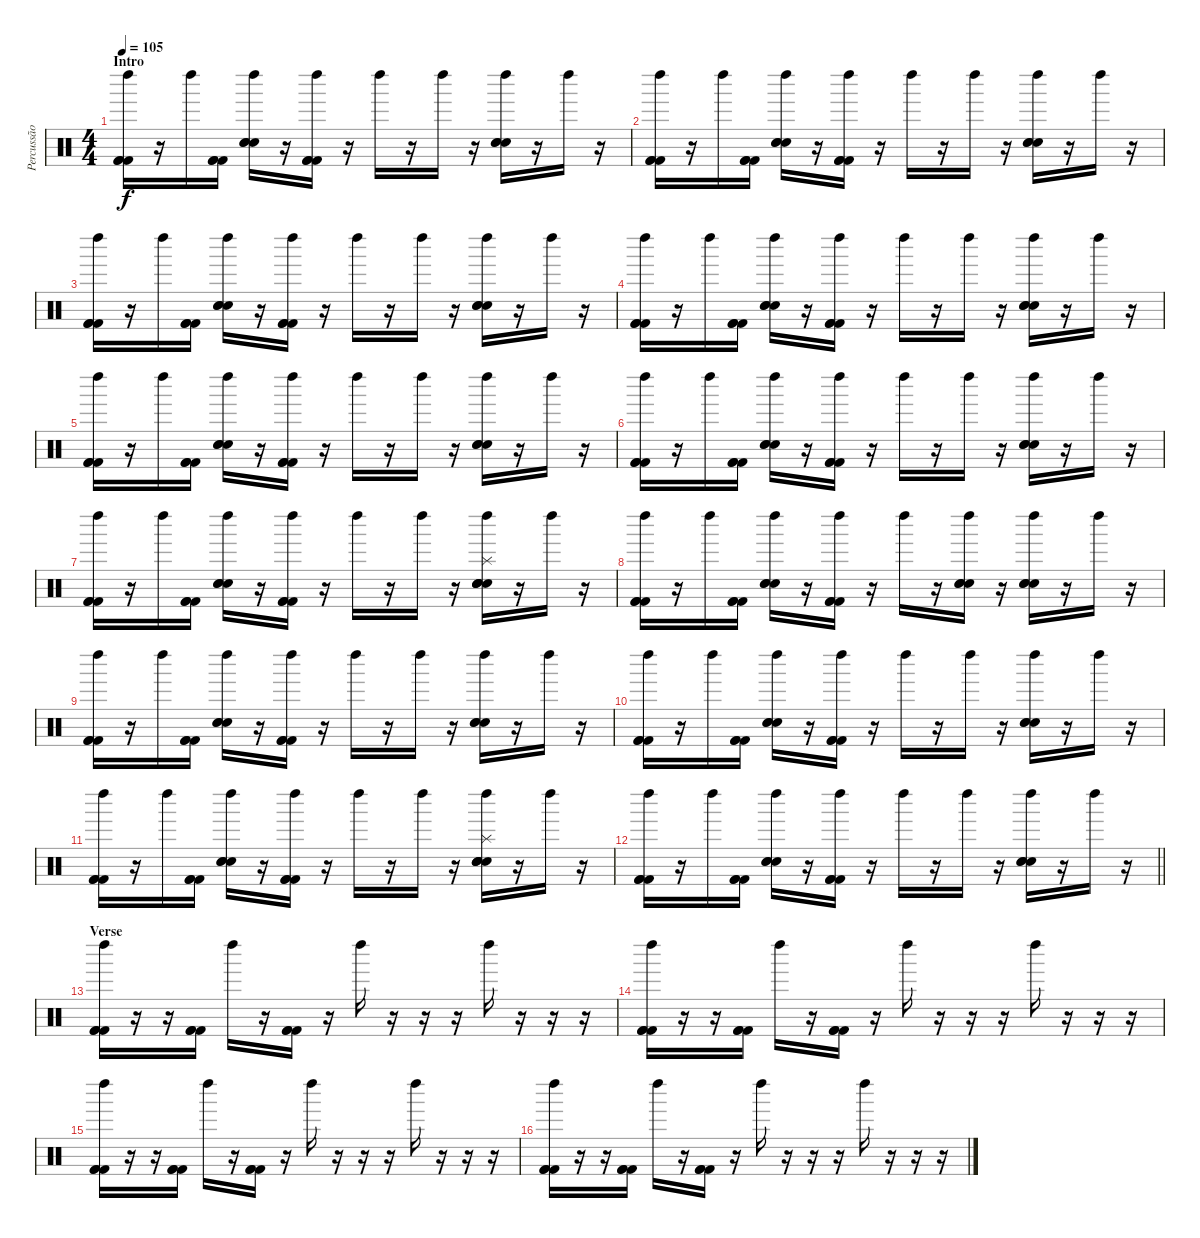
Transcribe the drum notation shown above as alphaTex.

\track ("Percussão" "Percussão") {instrument percussion}
\staff {score}
\articulation defaults
\ts (4 4)
\section ("" "Intro")
\tempo 105
\clef neutral
\ks c
("Left Maraca (hit)" "Kick (hit) 2" "Kick (hit) 2" "Kick (hit) 2").16{dy f} r.16 "Left Maraca (hit)".16 ("Kick (hit) 2" "Kick (hit) 2" "Kick (hit) 2").16 ("Left Maraca (hit)" "Hand Clap (hit)" "Hand Clap (hit)" "Hand Clap (hit)").16 r.16 ("Left Maraca (hit)" "Kick (hit) 2" "Kick (hit) 2" "Kick (hit) 2").16 r.16 "Left Maraca (hit)".16 r.16 "Left Maraca (hit)".16 r.16 ("Left Maraca (hit)" "Hand Clap (hit)" "Hand Clap (hit)" "Hand Clap (hit)").16 r.16 "Left Maraca (hit)".16 r.16 |
("Left Maraca (hit)" "Kick (hit) 2" "Kick (hit) 2" "Kick (hit) 2").16 r.16 "Left Maraca (hit)".16 ("Kick (hit) 2" "Kick (hit) 2" "Kick (hit) 2").16 ("Left Maraca (hit)" "Hand Clap (hit)" "Hand Clap (hit)" "Hand Clap (hit)").16 r.16 ("Left Maraca (hit)" "Kick (hit) 2" "Kick (hit) 2" "Kick (hit) 2").16 r.16 "Left Maraca (hit)".16 r.16 "Left Maraca (hit)".16 r.16 ("Left Maraca (hit)" "Hand Clap (hit)" "Hand Clap (hit)" "Hand Clap (hit)").16 r.16 "Left Maraca (hit)".16 r.16 |
("Left Maraca (hit)" "Kick (hit) 2" "Kick (hit) 2" "Kick (hit) 2").16 r.16 "Left Maraca (hit)".16 ("Kick (hit) 2" "Kick (hit) 2" "Kick (hit) 2").16 ("Left Maraca (hit)" "Hand Clap (hit)" "Hand Clap (hit)" "Hand Clap (hit)").16 r.16 ("Left Maraca (hit)" "Kick (hit) 2" "Kick (hit) 2" "Kick (hit) 2").16 r.16 "Left Maraca (hit)".16 r.16 "Left Maraca (hit)".16 r.16 ("Left Maraca (hit)" "Hand Clap (hit)" "Hand Clap (hit)" "Hand Clap (hit)").16 r.16 "Left Maraca (hit)".16 r.16 |
("Left Maraca (hit)" "Kick (hit) 2" "Kick (hit) 2" "Kick (hit) 2").16 r.16 "Left Maraca (hit)".16 ("Kick (hit) 2" "Kick (hit) 2" "Kick (hit) 2").16 ("Left Maraca (hit)" "Hand Clap (hit)" "Hand Clap (hit)" "Hand Clap (hit)").16 r.16 ("Left Maraca (hit)" "Kick (hit) 2" "Kick (hit) 2" "Kick (hit) 2").16 r.16 "Left Maraca (hit)".16 r.16 "Left Maraca (hit)".16 r.16 ("Left Maraca (hit)" "Hand Clap (hit)" "Hand Clap (hit)" "Hand Clap (hit)").16 r.16 "Left Maraca (hit)".16 r.16 |
("Left Maraca (hit)" "Kick (hit) 2" "Kick (hit) 2" "Kick (hit) 2").16 r.16 "Left Maraca (hit)".16 ("Kick (hit) 2" "Kick (hit) 2" "Kick (hit) 2").16 ("Left Maraca (hit)" "Hand Clap (hit)" "Hand Clap (hit)" "Hand Clap (hit)").16 r.16 ("Left Maraca (hit)" "Kick (hit) 2" "Kick (hit) 2" "Kick (hit) 2").16 r.16 "Left Maraca (hit)".16 r.16 "Left Maraca (hit)".16 r.16 ("Left Maraca (hit)" "Hand Clap (hit)" "Hand Clap (hit)" "Hand Clap (hit)").16 r.16 "Left Maraca (hit)".16 r.16 |
("Left Maraca (hit)" "Kick (hit) 2" "Kick (hit) 2" "Kick (hit) 2").16 r.16 "Left Maraca (hit)".16 ("Kick (hit) 2" "Kick (hit) 2" "Kick (hit) 2").16 ("Left Maraca (hit)" "Hand Clap (hit)" "Hand Clap (hit)" "Hand Clap (hit)").16 r.16 ("Left Maraca (hit)" "Kick (hit) 2" "Kick (hit) 2" "Kick (hit) 2").16 r.16 "Left Maraca (hit)".16 r.16 "Left Maraca (hit)".16 r.16 ("Left Maraca (hit)" "Hand Clap (hit)" "Hand Clap (hit)" "Hand Clap (hit)").16 r.16 "Left Maraca (hit)".16 r.16 |
("Left Maraca (hit)" "Kick (hit) 2" "Kick (hit) 2" "Kick (hit) 2").16 r.16 "Left Maraca (hit)".16 ("Kick (hit) 2" "Kick (hit) 2" "Kick (hit) 2").16 ("Left Maraca (hit)" "Hand Clap (hit)" "Hand Clap (hit)" "Hand Clap (hit)").16 r.16 ("Left Maraca (hit)" "Kick (hit) 2" "Kick (hit) 2" "Kick (hit) 2").16 r.16 "Left Maraca (hit)".16 r.16 "Left Maraca (hit)".16 r.16 ("Left Maraca (hit)" "Splash (hit)" "Hand Clap (hit)" "Hand Clap (hit)" "Hand Clap (hit)" "Snare (hit) 2").16 r.16 "Left Maraca (hit)".16 r.16 |
("Left Maraca (hit)" "Kick (hit) 2" "Kick (hit) 2" "Kick (hit) 2").16 r.16 "Left Maraca (hit)".16 ("Kick (hit) 2" "Kick (hit) 2" "Kick (hit) 2").16 ("Left Maraca (hit)" "Hand Clap (hit)" "Hand Clap (hit)" "Hand Clap (hit)").16 r.16 ("Left Maraca (hit)" "Kick (hit) 2" "Kick (hit) 2" "Kick (hit) 2").16 r.16 "Left Maraca (hit)".16 r.16 ("Left Maraca (hit)" "Hand Clap (hit)" "Hand Clap (hit)" "Hand Clap (hit)").16 r.16 ("Left Maraca (hit)" "Hand Clap (hit)" "Hand Clap (hit)" "Hand Clap (hit)").16 r.16 "Left Maraca (hit)".16 r.16 |
("Left Maraca (hit)" "Kick (hit) 2" "Kick (hit) 2" "Kick (hit) 2").16 r.16 "Left Maraca (hit)".16 ("Kick (hit) 2" "Kick (hit) 2" "Kick (hit) 2").16 ("Left Maraca (hit)" "Hand Clap (hit)" "Hand Clap (hit)" "Hand Clap (hit)").16 r.16 ("Left Maraca (hit)" "Kick (hit) 2" "Kick (hit) 2" "Kick (hit) 2").16 r.16 "Left Maraca (hit)".16 r.16 "Left Maraca (hit)".16 r.16 ("Left Maraca (hit)" "Hand Clap (hit)" "Hand Clap (hit)" "Hand Clap (hit)").16 r.16 "Left Maraca (hit)".16 r.16 |
("Left Maraca (hit)" "Kick (hit) 2" "Kick (hit) 2" "Kick (hit) 2").16 r.16 "Left Maraca (hit)".16 ("Kick (hit) 2" "Kick (hit) 2" "Kick (hit) 2").16 ("Left Maraca (hit)" "Hand Clap (hit)" "Hand Clap (hit)" "Hand Clap (hit)").16 r.16 ("Left Maraca (hit)" "Kick (hit) 2" "Kick (hit) 2" "Kick (hit) 2").16 r.16 "Left Maraca (hit)".16 r.16 "Left Maraca (hit)".16 r.16 ("Left Maraca (hit)" "Hand Clap (hit)" "Hand Clap (hit)" "Hand Clap (hit)").16 r.16 "Left Maraca (hit)".16 r.16 |
("Left Maraca (hit)" "Kick (hit) 2" "Kick (hit) 2" "Kick (hit) 2").16 r.16 "Left Maraca (hit)".16 ("Kick (hit) 2" "Kick (hit) 2" "Kick (hit) 2").16 ("Left Maraca (hit)" "Hand Clap (hit)" "Hand Clap (hit)" "Hand Clap (hit)").16 r.16 ("Left Maraca (hit)" "Kick (hit) 2" "Kick (hit) 2" "Kick (hit) 2").16 r.16 "Left Maraca (hit)".16 r.16 "Left Maraca (hit)".16 r.16 ("Left Maraca (hit)" "Splash (hit)" "Hand Clap (hit)" "Hand Clap (hit)" "Hand Clap (hit)" "Snare (hit) 2").16 r.16 "Left Maraca (hit)".16 r.16 |
\barLineRight lightlight
("Left Maraca (hit)" "Kick (hit) 2" "Kick (hit) 2" "Kick (hit) 2").16 r.16 "Left Maraca (hit)".16 ("Kick (hit) 2" "Kick (hit) 2" "Kick (hit) 2").16 ("Left Maraca (hit)" "Hand Clap (hit)" "Hand Clap (hit)" "Hand Clap (hit)").16 r.16 ("Left Maraca (hit)" "Kick (hit) 2" "Kick (hit) 2" "Kick (hit) 2").16 r.16 "Left Maraca (hit)".16 r.16 "Left Maraca (hit)".16 r.16 ("Left Maraca (hit)" "Hand Clap (hit)" "Hand Clap (hit)" "Hand Clap (hit)").16 r.16 "Left Maraca (hit)".16 r.16 |
\section ("" "Verse")
("Left Maraca (hit)" "Kick (hit) 2" "Kick (hit) 2" "Kick (hit) 2").16 r.16 r.16 ("Kick (hit) 2" "Kick (hit) 2" "Kick (hit) 2").16 "Left Maraca (hit)".16 r.16 ("Kick (hit) 2" "Kick (hit) 2" "Kick (hit) 2").16 r.16 "Left Maraca (hit)".16 r.16 r.16 r.16 "Left Maraca (hit)".16 r.16 r.16 r.16 |
("Left Maraca (hit)" "Kick (hit) 2" "Kick (hit) 2" "Kick (hit) 2").16 r.16 r.16 ("Kick (hit) 2" "Kick (hit) 2" "Kick (hit) 2").16 "Left Maraca (hit)".16 r.16 ("Kick (hit) 2" "Kick (hit) 2" "Kick (hit) 2").16 r.16 "Left Maraca (hit)".16 r.16 r.16 r.16 "Left Maraca (hit)".16 r.16 r.16 r.16 |
("Left Maraca (hit)" "Kick (hit) 2" "Kick (hit) 2" "Kick (hit) 2").16 r.16 r.16 ("Kick (hit) 2" "Kick (hit) 2" "Kick (hit) 2").16 "Left Maraca (hit)".16 r.16 ("Kick (hit) 2" "Kick (hit) 2" "Kick (hit) 2").16 r.16 "Left Maraca (hit)".16 r.16 r.16 r.16 "Left Maraca (hit)".16 r.16 r.16 r.16 |
("Left Maraca (hit)" "Kick (hit) 2" "Kick (hit) 2" "Kick (hit) 2").16 r.16 r.16 ("Kick (hit) 2" "Kick (hit) 2" "Kick (hit) 2").16 "Left Maraca (hit)".16 r.16 ("Kick (hit) 2" "Kick (hit) 2" "Kick (hit) 2").16 r.16 "Left Maraca (hit)".16 r.16 r.16 r.16 "Left Maraca (hit)".16 r.16 r.16 r.16
